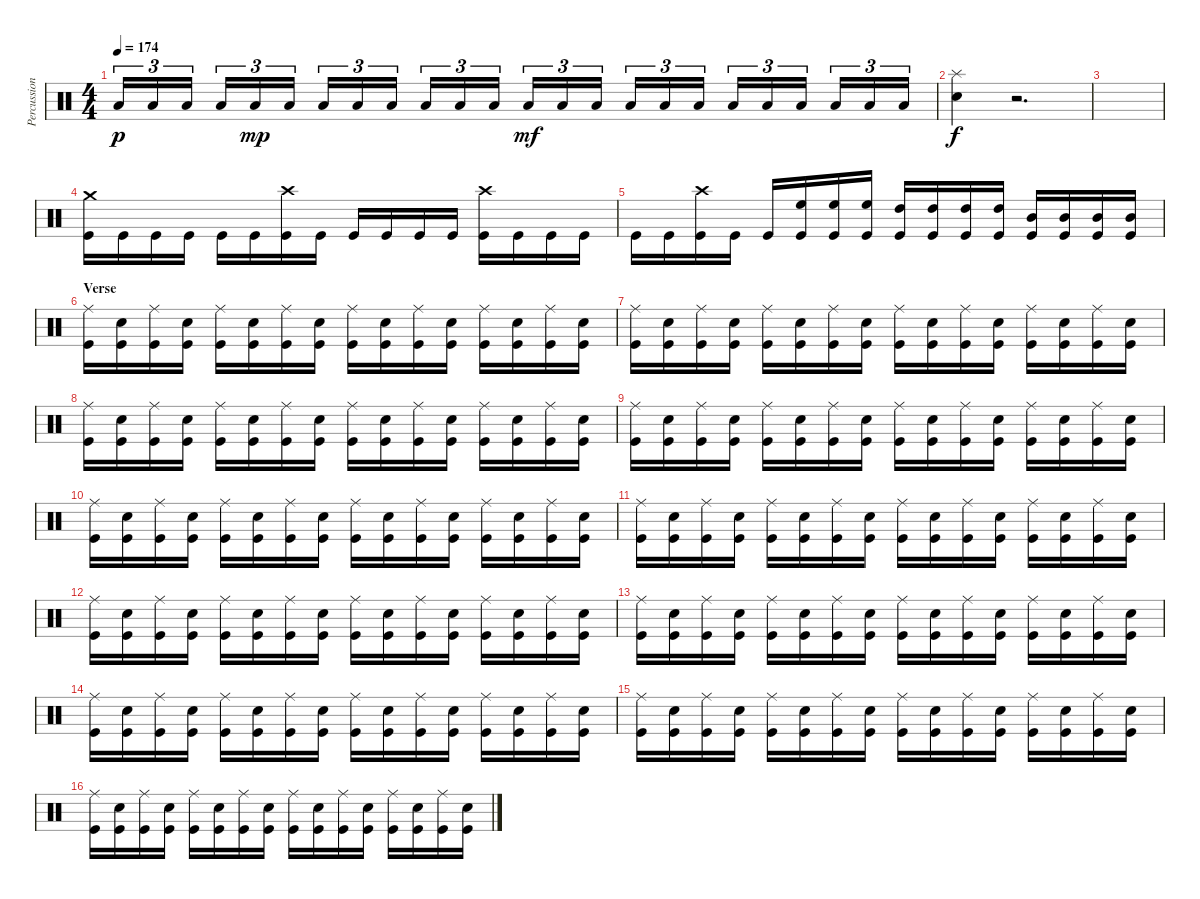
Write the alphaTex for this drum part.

\track ("Percussion" "Percussion") {instrument percussion}
\staff {score}
\articulation defaults
\ts (4 4)
\tempo 174
\clef neutral
\ks c "Low Floor Tom (hit)".16{tu (3 2) dy p} "Low Floor Tom (hit)".16{tu (3 2)} "Low Floor Tom (hit)".16{tu (3 2)} "Low Floor Tom (hit)".16{tu (3 2)} "Low Floor Tom (hit)".16{tu (3 2) dy mp} "Low Floor Tom (hit)".16{tu (3 2)} "Low Floor Tom (hit)".16{tu (3 2)} "Low Floor Tom (hit)".16{tu (3 2)} "Low Floor Tom (hit)".16{tu (3 2)} "Low Floor Tom (hit)".16{tu (3 2)} "Low Floor Tom (hit)".16{tu (3 2)} "Low Floor Tom (hit)".16{tu (3 2)} "Low Floor Tom (hit)".16{tu (3 2) dy mf} "Low Floor Tom (hit)".16{tu (3 2)} "Low Floor Tom (hit)".16{tu (3 2)} "Low Floor Tom (hit)".16{tu (3 2)} "Low Floor Tom (hit)".16{tu (3 2)} "Low Floor Tom (hit)".16{tu (3 2)} "Low Floor Tom (hit)".16{tu (3 2)} "Low Floor Tom (hit)".16{tu (3 2)} "Low Floor Tom (hit)".16{tu (3 2)} "Low Floor Tom (hit)".16{tu (3 2)} "Low Floor Tom (hit)".16{tu (3 2)} "Low Floor Tom (hit)".16{tu (3 2)}
|
("Splash (hit)" "Electric Snare (hit)").4{dy f} r.2{d} |
|
("Crash medium (hit)" "Kick (hit)").16 "Kick (hit)".16 "Kick (hit)".16 "Kick (hit)".16 "Kick (hit)".16 "Kick (hit)".16 ("Crash high (hit)" "Kick (hit)").16 "Kick (hit)".16 "Kick (hit)".16 "Kick (hit)".16 "Kick (hit)".16 "Kick (hit)".16 ("Crash high (hit)" "Kick (hit)").16 "Kick (hit)".16 "Kick (hit)".16 "Kick (hit)".16 |
"Kick (hit)".16 "Kick (hit)".16 ("Crash high (hit)" "Kick (hit)").16 "Kick (hit)".16 "Kick (hit)".16 ("High Floor Tom (hit)" "Kick (hit)").16 ("High Floor Tom (hit)" "Kick (hit)").16 ("High Floor Tom (hit)" "Kick (hit)").16 ("High Tom (hit)" "Kick (hit)").16 ("High Tom (hit)" "Kick (hit)").16 ("High Tom (hit)" "Kick (hit)").16 ("High Tom (hit)" "Kick (hit)").16 ("Mid Tom (hit)" "Kick (hit)").16 ("Mid Tom (hit)" "Kick (hit)").16 ("Mid Tom (hit)" "Kick (hit)").16 ("Mid Tom (hit)" "Kick (hit)").16 |
\section ("" "Verse")
("Ride (middle)" "Kick (hit)").16 ("Electric Snare (hit)" "Kick (hit)").16 ("Ride (middle)" "Kick (hit)").16 ("Electric Snare (hit)" "Kick (hit)").16 ("Ride (middle)" "Kick (hit)").16 ("Electric Snare (hit)" "Kick (hit)").16 ("Ride (middle)" "Kick (hit)").16 ("Electric Snare (hit)" "Kick (hit)").16 ("Ride (middle)" "Kick (hit)").16 ("Electric Snare (hit)" "Kick (hit)").16 ("Ride (middle)" "Kick (hit)").16 ("Electric Snare (hit)" "Kick (hit)").16 ("Ride (middle)" "Kick (hit)").16 ("Electric Snare (hit)" "Kick (hit)").16 ("Ride (middle)" "Kick (hit)").16 ("Electric Snare (hit)" "Kick (hit)").16 |
("Ride (middle)" "Kick (hit)").16 ("Electric Snare (hit)" "Kick (hit)").16 ("Ride (middle)" "Kick (hit)").16 ("Electric Snare (hit)" "Kick (hit)").16 ("Ride (middle)" "Kick (hit)").16 ("Electric Snare (hit)" "Kick (hit)").16 ("Ride (middle)" "Kick (hit)").16 ("Electric Snare (hit)" "Kick (hit)").16 ("Ride (middle)" "Kick (hit)").16 ("Electric Snare (hit)" "Kick (hit)").16 ("Ride (middle)" "Kick (hit)").16 ("Electric Snare (hit)" "Kick (hit)").16 ("Ride (middle)" "Kick (hit)").16 ("Electric Snare (hit)" "Kick (hit)").16 ("Ride (middle)" "Kick (hit)").16 ("Electric Snare (hit)" "Kick (hit)").16 |
("Ride (middle)" "Kick (hit)").16 ("Electric Snare (hit)" "Kick (hit)").16 ("Ride (middle)" "Kick (hit)").16 ("Electric Snare (hit)" "Kick (hit)").16 ("Ride (middle)" "Kick (hit)").16 ("Electric Snare (hit)" "Kick (hit)").16 ("Ride (middle)" "Kick (hit)").16 ("Electric Snare (hit)" "Kick (hit)").16 ("Ride (middle)" "Kick (hit)").16 ("Electric Snare (hit)" "Kick (hit)").16 ("Ride (middle)" "Kick (hit)").16 ("Electric Snare (hit)" "Kick (hit)").16 ("Ride (middle)" "Kick (hit)").16 ("Electric Snare (hit)" "Kick (hit)").16 ("Ride (middle)" "Kick (hit)").16 ("Electric Snare (hit)" "Kick (hit)").16 |
("Ride (middle)" "Kick (hit)").16 ("Electric Snare (hit)" "Kick (hit)").16 ("Ride (middle)" "Kick (hit)").16 ("Electric Snare (hit)" "Kick (hit)").16 ("Ride (middle)" "Kick (hit)").16 ("Electric Snare (hit)" "Kick (hit)").16 ("Ride (middle)" "Kick (hit)").16 ("Electric Snare (hit)" "Kick (hit)").16 ("Ride (middle)" "Kick (hit)").16 ("Electric Snare (hit)" "Kick (hit)").16 ("Ride (middle)" "Kick (hit)").16 ("Electric Snare (hit)" "Kick (hit)").16 ("Ride (middle)" "Kick (hit)").16 ("Electric Snare (hit)" "Kick (hit)").16 ("Ride (middle)" "Kick (hit)").16 ("Electric Snare (hit)" "Kick (hit)").16 |
("Ride (middle)" "Kick (hit)").16 ("Electric Snare (hit)" "Kick (hit)").16 ("Ride (middle)" "Kick (hit)").16 ("Electric Snare (hit)" "Kick (hit)").16 ("Ride (middle)" "Kick (hit)").16 ("Electric Snare (hit)" "Kick (hit)").16 ("Ride (middle)" "Kick (hit)").16 ("Electric Snare (hit)" "Kick (hit)").16 ("Ride (middle)" "Kick (hit)").16 ("Electric Snare (hit)" "Kick (hit)").16 ("Ride (middle)" "Kick (hit)").16 ("Electric Snare (hit)" "Kick (hit)").16 ("Ride (middle)" "Kick (hit)").16 ("Electric Snare (hit)" "Kick (hit)").16 ("Ride (middle)" "Kick (hit)").16 ("Electric Snare (hit)" "Kick (hit)").16 |
("Ride (middle)" "Kick (hit)").16 ("Electric Snare (hit)" "Kick (hit)").16 ("Ride (middle)" "Kick (hit)").16 ("Electric Snare (hit)" "Kick (hit)").16 ("Ride (middle)" "Kick (hit)").16 ("Electric Snare (hit)" "Kick (hit)").16 ("Ride (middle)" "Kick (hit)").16 ("Electric Snare (hit)" "Kick (hit)").16 ("Ride (middle)" "Kick (hit)").16 ("Electric Snare (hit)" "Kick (hit)").16 ("Ride (middle)" "Kick (hit)").16 ("Electric Snare (hit)" "Kick (hit)").16 ("Ride (middle)" "Kick (hit)").16 ("Electric Snare (hit)" "Kick (hit)").16 ("Ride (middle)" "Kick (hit)").16 ("Electric Snare (hit)" "Kick (hit)").16 |
("Ride (middle)" "Kick (hit)").16 ("Electric Snare (hit)" "Kick (hit)").16 ("Ride (middle)" "Kick (hit)").16 ("Electric Snare (hit)" "Kick (hit)").16 ("Ride (middle)" "Kick (hit)").16 ("Electric Snare (hit)" "Kick (hit)").16 ("Ride (middle)" "Kick (hit)").16 ("Electric Snare (hit)" "Kick (hit)").16 ("Ride (middle)" "Kick (hit)").16 ("Electric Snare (hit)" "Kick (hit)").16 ("Ride (middle)" "Kick (hit)").16 ("Electric Snare (hit)" "Kick (hit)").16 ("Ride (middle)" "Kick (hit)").16 ("Electric Snare (hit)" "Kick (hit)").16 ("Ride (middle)" "Kick (hit)").16 ("Electric Snare (hit)" "Kick (hit)").16 |
("Ride (middle)" "Kick (hit)").16 ("Electric Snare (hit)" "Kick (hit)").16 ("Ride (middle)" "Kick (hit)").16 ("Electric Snare (hit)" "Kick (hit)").16 ("Ride (middle)" "Kick (hit)").16 ("Electric Snare (hit)" "Kick (hit)").16 ("Ride (middle)" "Kick (hit)").16 ("Electric Snare (hit)" "Kick (hit)").16 ("Ride (middle)" "Kick (hit)").16 ("Electric Snare (hit)" "Kick (hit)").16 ("Ride (middle)" "Kick (hit)").16 ("Electric Snare (hit)" "Kick (hit)").16 ("Ride (middle)" "Kick (hit)").16 ("Electric Snare (hit)" "Kick (hit)").16 ("Ride (middle)" "Kick (hit)").16 ("Electric Snare (hit)" "Kick (hit)").16 |
("Ride (middle)" "Kick (hit)").16 ("Electric Snare (hit)" "Kick (hit)").16 ("Ride (middle)" "Kick (hit)").16 ("Electric Snare (hit)" "Kick (hit)").16 ("Ride (middle)" "Kick (hit)").16 ("Electric Snare (hit)" "Kick (hit)").16 ("Ride (middle)" "Kick (hit)").16 ("Electric Snare (hit)" "Kick (hit)").16 ("Ride (middle)" "Kick (hit)").16 ("Electric Snare (hit)" "Kick (hit)").16 ("Ride (middle)" "Kick (hit)").16 ("Electric Snare (hit)" "Kick (hit)").16 ("Ride (middle)" "Kick (hit)").16 ("Electric Snare (hit)" "Kick (hit)").16 ("Ride (middle)" "Kick (hit)").16 ("Electric Snare (hit)" "Kick (hit)").16 |
("Ride (middle)" "Kick (hit)").16 ("Electric Snare (hit)" "Kick (hit)").16 ("Ride (middle)" "Kick (hit)").16 ("Electric Snare (hit)" "Kick (hit)").16 ("Ride (middle)" "Kick (hit)").16 ("Electric Snare (hit)" "Kick (hit)").16 ("Ride (middle)" "Kick (hit)").16 ("Electric Snare (hit)" "Kick (hit)").16 ("Ride (middle)" "Kick (hit)").16 ("Electric Snare (hit)" "Kick (hit)").16 ("Ride (middle)" "Kick (hit)").16 ("Electric Snare (hit)" "Kick (hit)").16 ("Ride (middle)" "Kick (hit)").16 ("Electric Snare (hit)" "Kick (hit)").16 ("Ride (middle)" "Kick (hit)").16 ("Electric Snare (hit)" "Kick (hit)").16 |
("Ride (middle)" "Kick (hit)").16 ("Electric Snare (hit)" "Kick (hit)").16 ("Ride (middle)" "Kick (hit)").16 ("Electric Snare (hit)" "Kick (hit)").16 ("Ride (middle)" "Kick (hit)").16 ("Electric Snare (hit)" "Kick (hit)").16 ("Ride (middle)" "Kick (hit)").16 ("Electric Snare (hit)" "Kick (hit)").16 ("Ride (middle)" "Kick (hit)").16 ("Electric Snare (hit)" "Kick (hit)").16 ("Ride (middle)" "Kick (hit)").16 ("Electric Snare (hit)" "Kick (hit)").16 ("Ride (middle)" "Kick (hit)").16 ("Electric Snare (hit)" "Kick (hit)").16 ("Ride (middle)" "Kick (hit)").16 ("Electric Snare (hit)" "Kick (hit)").16
